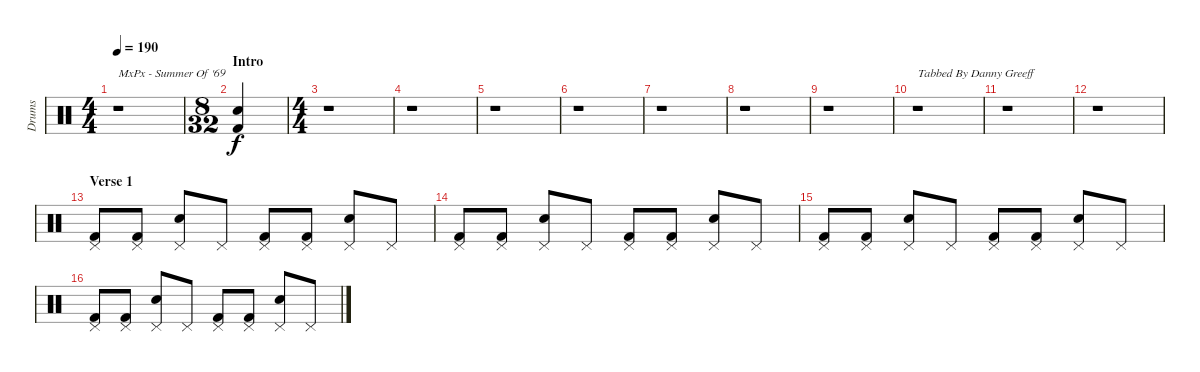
\track ("Drums" "Drums") {instrument percussion}
\staff {score}
\articulation defaults
\ts (4 4)
\tempo 190
\clef neutral
\ks c
r.1{txt "MxPx - Summer Of '69" dy f} |
\ts (8 32)
\section ("" "Intro")
("Snare (hit) 2" "Kick (hit) 2").4 |
\ts (4 4)
r.1 |
r.1 |
r.1 |
r.1 |
r.1 |
r.1 |
r.1 |
r.1{txt "Tabbed By Danny Greeff"} |
r.1 |
r.1 |
\section ("" "Verse 1")
("Pedal Hi-Hat (hit)" "Kick (hit) 2").8 ("Pedal Hi-Hat (hit)" "Kick (hit) 2").8 ("Pedal Hi-Hat (hit)" "Snare (hit) 2").8 "Pedal Hi-Hat (hit)".8 ("Pedal Hi-Hat (hit)" "Kick (hit) 2").8 ("Pedal Hi-Hat (hit)" "Kick (hit) 2").8 ("Pedal Hi-Hat (hit)" "Snare (hit) 2").8 "Pedal Hi-Hat (hit)".8 |
("Pedal Hi-Hat (hit)" "Kick (hit) 2").8 ("Pedal Hi-Hat (hit)" "Kick (hit) 2").8 ("Pedal Hi-Hat (hit)" "Snare (hit) 2").8 "Pedal Hi-Hat (hit)".8 ("Pedal Hi-Hat (hit)" "Kick (hit) 2").8 ("Pedal Hi-Hat (hit)" "Kick (hit) 2").8 ("Pedal Hi-Hat (hit)" "Snare (hit) 2").8 "Pedal Hi-Hat (hit)".8 |
("Pedal Hi-Hat (hit)" "Kick (hit) 2").8 ("Pedal Hi-Hat (hit)" "Kick (hit) 2").8 ("Pedal Hi-Hat (hit)" "Snare (hit) 2").8 "Pedal Hi-Hat (hit)".8 ("Pedal Hi-Hat (hit)" "Kick (hit) 2").8 ("Pedal Hi-Hat (hit)" "Kick (hit) 2").8 ("Pedal Hi-Hat (hit)" "Snare (hit) 2").8 "Pedal Hi-Hat (hit)".8 |
("Pedal Hi-Hat (hit)" "Kick (hit) 2").8 ("Pedal Hi-Hat (hit)" "Kick (hit) 2").8 ("Pedal Hi-Hat (hit)" "Snare (hit) 2").8 "Pedal Hi-Hat (hit)".8 ("Pedal Hi-Hat (hit)" "Kick (hit) 2").8 ("Pedal Hi-Hat (hit)" "Kick (hit) 2").8 ("Pedal Hi-Hat (hit)" "Snare (hit) 2").8 "Pedal Hi-Hat (hit)".8
